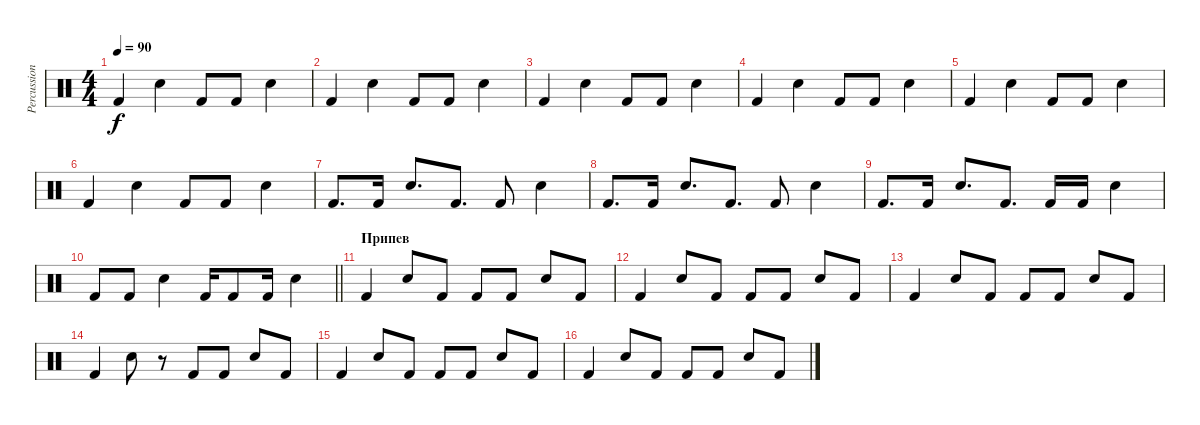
\track ("Percussion" "Percussion") {instrument percussion}
\staff {score}
\articulation defaults
\ts (4 4)
\tempo 90
\clef neutral
\ks c "Kick (hit) 2".4{dy f} "Snare (hit) 2".4 "Kick (hit) 2".8 "Kick (hit) 2".8 "Snare (hit) 2".4
|
"Kick (hit) 2".4 "Snare (hit) 2".4 "Kick (hit) 2".8 "Kick (hit) 2".8 "Snare (hit) 2".4 |
"Kick (hit) 2".4 "Snare (hit) 2".4 "Kick (hit) 2".8 "Kick (hit) 2".8 "Snare (hit) 2".4 |
"Kick (hit) 2".4 "Snare (hit) 2".4 "Kick (hit) 2".8 "Kick (hit) 2".8 "Snare (hit) 2".4 |
"Kick (hit) 2".4 "Snare (hit) 2".4 "Kick (hit) 2".8 "Kick (hit) 2".8 "Snare (hit) 2".4 |
"Kick (hit) 2".4 "Snare (hit) 2".4 "Kick (hit) 2".8 "Kick (hit) 2".8 "Snare (hit) 2".4 |
"Kick (hit) 2".8{d} "Kick (hit) 2".16 "Snare (hit) 2".8{d} "Kick (hit) 2".8{d} "Kick (hit) 2".8 "Snare (hit) 2".4 |
"Kick (hit) 2".8{d} "Kick (hit) 2".16 "Snare (hit) 2".8{d} "Kick (hit) 2".8{d} "Kick (hit) 2".8 "Snare (hit) 2".4 |
"Kick (hit) 2".8{d} "Kick (hit) 2".16 "Snare (hit) 2".8{d} "Kick (hit) 2".8{d} "Kick (hit) 2".16 "Kick (hit) 2".16 "Snare (hit) 2".4 |
\barLineRight lightlight "Kick (hit) 2".8 "Kick (hit) 2".8 "Snare (hit) 2".4 "Kick (hit) 2".16 "Kick (hit) 2".8 "Kick (hit) 2".16 "Snare (hit) 2".4
|
\section ("" "Припев")
"Kick (hit) 2".4 "Snare (hit) 2".8 "Kick (hit) 2".8 "Kick (hit) 2".8 "Kick (hit) 2".8 "Snare (hit) 2".8 "Kick (hit) 2".8 |
"Kick (hit) 2".4 "Snare (hit) 2".8 "Kick (hit) 2".8 "Kick (hit) 2".8 "Kick (hit) 2".8 "Snare (hit) 2".8 "Kick (hit) 2".8 |
"Kick (hit) 2".4 "Snare (hit) 2".8 "Kick (hit) 2".8 "Kick (hit) 2".8 "Kick (hit) 2".8 "Snare (hit) 2".8 "Kick (hit) 2".8 |
"Kick (hit) 2".4 "Snare (hit) 2".8 r.8 "Kick (hit) 2".8 "Kick (hit) 2".8 "Snare (hit) 2".8 "Kick (hit) 2".8 |
"Kick (hit) 2".4 "Snare (hit) 2".8 "Kick (hit) 2".8 "Kick (hit) 2".8 "Kick (hit) 2".8 "Snare (hit) 2".8 "Kick (hit) 2".8 |
"Kick (hit) 2".4 "Snare (hit) 2".8 "Kick (hit) 2".8 "Kick (hit) 2".8 "Kick (hit) 2".8 "Snare (hit) 2".8 "Kick (hit) 2".8
